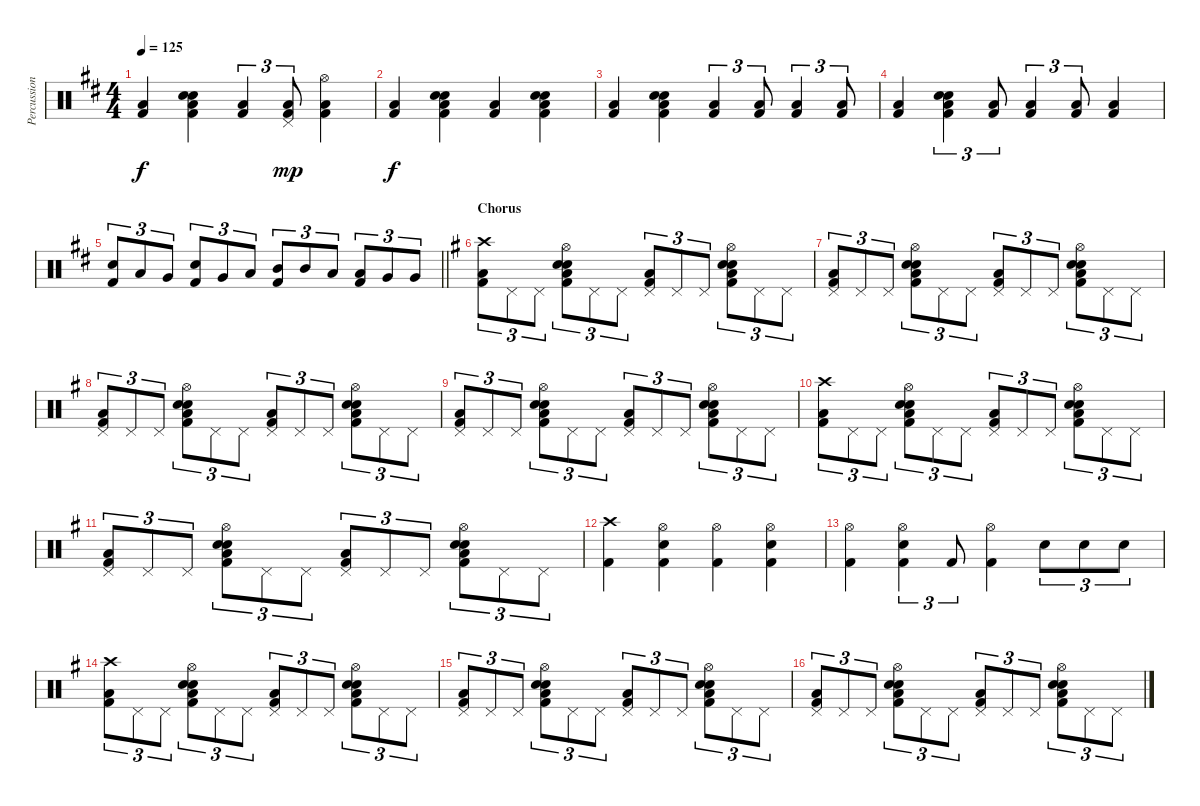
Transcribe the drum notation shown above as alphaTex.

\track ("Percussion" "Percussion") {instrument percussion}
\staff {score}
\articulation defaults
\ts (4 4)
\tempo 125
\clef neutral
\ks bminor
("Low Floor Tom (hit)" "Kick (hit) 2").4{dy f} ("Electric Snare (hit)" "Hand Clap (hit)" "Low Floor Tom (hit)" "Kick (hit) 2").4 ("Low Floor Tom (hit)" "Kick (hit) 2").4{tu (3 2)} ("Pedal Hi-Hat (hit)" "Low Floor Tom (hit)" "Kick (hit) 2").8{tu (3 2) dy mp} ("Hi-Hat (open)" "Low Floor Tom (hit)" "Kick (hit) 2").4 |
("Low Floor Tom (hit)" "Kick (hit) 2").4{dy f} ("Electric Snare (hit)" "Hand Clap (hit)" "Low Floor Tom (hit)" "Kick (hit) 2").4 ("Low Floor Tom (hit)" "Kick (hit) 2").4 ("Electric Snare (hit)" "Hand Clap (hit)" "Low Floor Tom (hit)" "Kick (hit) 2").4 |
("Low Floor Tom (hit)" "Kick (hit) 2").4 ("Electric Snare (hit)" "Hand Clap (hit)" "Low Floor Tom (hit)" "Kick (hit) 2").4 ("Low Floor Tom (hit)" "Kick (hit) 2").4{tu (3 2)} ("Low Floor Tom (hit)" "Kick (hit) 2").8{tu (3 2)} ("Low Floor Tom (hit)" "Kick (hit) 2").4{tu (3 2)} ("Low Floor Tom (hit)" "Kick (hit) 2").8{tu (3 2)} |
("Low Floor Tom (hit)" "Kick (hit) 2").4 ("Electric Snare (hit)" "Hand Clap (hit)" "Low Floor Tom (hit)" "Kick (hit) 2").4{tu (3 2)} ("Low Floor Tom (hit)" "Kick (hit) 2").8{tu (3 2)} ("Low Floor Tom (hit)" "Kick (hit) 2").4{tu (3 2)} ("Low Floor Tom (hit)" "Kick (hit) 2").8{tu (3 2)} ("Low Floor Tom (hit)" "Kick (hit) 2").4 |
\barLineRight lightlight
("Electric Snare (hit)" "Kick (hit) 2").8{tu (3 2)} "Low Tom (hit)".8{tu (3 2)} "Very Low Tom (hit)".8{tu (3 2)} ("Electric Snare (hit)" "Kick (hit) 2").8{tu (3 2)} "Very Low Tom (hit)".8{tu (3 2)} "Low Floor Tom (hit)".8{tu (3 2)} ("Mid Tom (hit)" "Kick (hit) 2").8{tu (3 2)} "Mid Tom (hit)".8{tu (3 2)} "Low Tom (hit)".8{tu (3 2)} ("Low Tom (hit)" "Kick (hit) 2").8{tu (3 2)} "Very Low Tom (hit)".8{tu (3 2)} "Very Low Tom (hit)".8{tu (3 2)} |
\section ("" "Chorus")
\ks eminor
("Crash high (hit)" "Low Floor Tom (hit)" "Kick (hit) 2").8{tu (3 2)} "Pedal Hi-Hat (hit)".8{tu (3 2)} "Pedal Hi-Hat (hit)".8{tu (3 2)} ("Hi-Hat (open)" "Electric Snare (hit)" "Hand Clap (hit)" "Low Floor Tom (hit)" "Kick (hit) 2").8{tu (3 2)} "Pedal Hi-Hat (hit)".8{tu (3 2)} "Pedal Hi-Hat (hit)".8{tu (3 2)} ("Pedal Hi-Hat (hit)" "Low Floor Tom (hit)" "Kick (hit) 2").8{tu (3 2)} "Pedal Hi-Hat (hit)".8{tu (3 2)} "Pedal Hi-Hat (hit)".8{tu (3 2)} ("Hi-Hat (open)" "Electric Snare (hit)" "Hand Clap (hit)" "Low Floor Tom (hit)" "Kick (hit) 2").8{tu (3 2)} "Pedal Hi-Hat (hit)".8{tu (3 2)} "Pedal Hi-Hat (hit)".8{tu (3 2)} |
("Pedal Hi-Hat (hit)" "Low Floor Tom (hit)" "Kick (hit) 2").8{tu (3 2)} "Pedal Hi-Hat (hit)".8{tu (3 2)} "Pedal Hi-Hat (hit)".8{tu (3 2)} ("Hi-Hat (open)" "Electric Snare (hit)" "Hand Clap (hit)" "Low Floor Tom (hit)" "Kick (hit) 2").8{tu (3 2)} "Pedal Hi-Hat (hit)".8{tu (3 2)} "Pedal Hi-Hat (hit)".8{tu (3 2)} ("Pedal Hi-Hat (hit)" "Low Floor Tom (hit)" "Kick (hit) 2").8{tu (3 2)} "Pedal Hi-Hat (hit)".8{tu (3 2)} "Pedal Hi-Hat (hit)".8{tu (3 2)} ("Hi-Hat (open)" "Electric Snare (hit)" "Hand Clap (hit)" "Low Floor Tom (hit)" "Kick (hit) 2").8{tu (3 2)} "Pedal Hi-Hat (hit)".8{tu (3 2)} "Pedal Hi-Hat (hit)".8{tu (3 2)} |
("Pedal Hi-Hat (hit)" "Low Floor Tom (hit)" "Kick (hit) 2").8{tu (3 2)} "Pedal Hi-Hat (hit)".8{tu (3 2)} "Pedal Hi-Hat (hit)".8{tu (3 2)} ("Hi-Hat (open)" "Electric Snare (hit)" "Hand Clap (hit)" "Low Floor Tom (hit)" "Kick (hit) 2").8{tu (3 2)} "Pedal Hi-Hat (hit)".8{tu (3 2)} "Pedal Hi-Hat (hit)".8{tu (3 2)} ("Pedal Hi-Hat (hit)" "Low Floor Tom (hit)" "Kick (hit) 2").8{tu (3 2)} "Pedal Hi-Hat (hit)".8{tu (3 2)} "Pedal Hi-Hat (hit)".8{tu (3 2)} ("Hi-Hat (open)" "Electric Snare (hit)" "Hand Clap (hit)" "Low Floor Tom (hit)" "Kick (hit) 2").8{tu (3 2)} "Pedal Hi-Hat (hit)".8{tu (3 2)} "Pedal Hi-Hat (hit)".8{tu (3 2)} |
("Pedal Hi-Hat (hit)" "Low Floor Tom (hit)" "Kick (hit) 2").8{tu (3 2)} "Pedal Hi-Hat (hit)".8{tu (3 2)} "Pedal Hi-Hat (hit)".8{tu (3 2)} ("Hi-Hat (open)" "Electric Snare (hit)" "Hand Clap (hit)" "Low Floor Tom (hit)" "Kick (hit) 2").8{tu (3 2)} "Pedal Hi-Hat (hit)".8{tu (3 2)} "Pedal Hi-Hat (hit)".8{tu (3 2)} ("Pedal Hi-Hat (hit)" "Low Floor Tom (hit)" "Kick (hit) 2").8{tu (3 2)} "Pedal Hi-Hat (hit)".8{tu (3 2)} "Pedal Hi-Hat (hit)".8{tu (3 2)} ("Hi-Hat (open)" "Electric Snare (hit)" "Hand Clap (hit)" "Low Floor Tom (hit)" "Kick (hit) 2").8{tu (3 2)} "Pedal Hi-Hat (hit)".8{tu (3 2)} "Pedal Hi-Hat (hit)".8{tu (3 2)} |
("Crash high (hit)" "Low Floor Tom (hit)" "Kick (hit) 2").8{tu (3 2)} "Pedal Hi-Hat (hit)".8{tu (3 2)} "Pedal Hi-Hat (hit)".8{tu (3 2)} ("Hi-Hat (open)" "Electric Snare (hit)" "Hand Clap (hit)" "Low Floor Tom (hit)" "Kick (hit) 2").8{tu (3 2)} "Pedal Hi-Hat (hit)".8{tu (3 2)} "Pedal Hi-Hat (hit)".8{tu (3 2)} ("Pedal Hi-Hat (hit)" "Low Floor Tom (hit)" "Kick (hit) 2").8{tu (3 2)} "Pedal Hi-Hat (hit)".8{tu (3 2)} "Pedal Hi-Hat (hit)".8{tu (3 2)} ("Hi-Hat (open)" "Electric Snare (hit)" "Hand Clap (hit)" "Low Floor Tom (hit)" "Kick (hit) 2").8{tu (3 2)} "Pedal Hi-Hat (hit)".8{tu (3 2)} "Pedal Hi-Hat (hit)".8{tu (3 2)} |
("Pedal Hi-Hat (hit)" "Low Floor Tom (hit)" "Kick (hit) 2").8{tu (3 2)} "Pedal Hi-Hat (hit)".8{tu (3 2)} "Pedal Hi-Hat (hit)".8{tu (3 2)} ("Hi-Hat (open)" "Electric Snare (hit)" "Hand Clap (hit)" "Low Floor Tom (hit)" "Kick (hit) 2").8{tu (3 2)} "Pedal Hi-Hat (hit)".8{tu (3 2)} "Pedal Hi-Hat (hit)".8{tu (3 2)} ("Pedal Hi-Hat (hit)" "Low Floor Tom (hit)" "Kick (hit) 2").8{tu (3 2)} "Pedal Hi-Hat (hit)".8{tu (3 2)} "Pedal Hi-Hat (hit)".8{tu (3 2)} ("Hi-Hat (open)" "Electric Snare (hit)" "Hand Clap (hit)" "Low Floor Tom (hit)" "Kick (hit) 2").8{tu (3 2)} "Pedal Hi-Hat (hit)".8{tu (3 2)} "Pedal Hi-Hat (hit)".8{tu (3 2)} |
("Crash high (hit)" "Kick (hit) 2").4 ("Hi-Hat (open)" "Electric Snare (hit)" "Kick (hit) 2").4 ("Hi-Hat (open)" "Kick (hit) 2").4 ("Hi-Hat (open)" "Electric Snare (hit)" "Kick (hit) 2").4 |
("Hi-Hat (open)" "Kick (hit) 2").4 ("Hi-Hat (open)" "Electric Snare (hit)" "Kick (hit) 2").4{tu (3 2)} "Kick (hit) 2".8{tu (3 2)} ("Hi-Hat (open)" "Kick (hit) 2").4 "Electric Snare (hit)".8{tu (3 2)} "Electric Snare (hit)".8{tu (3 2)} "Electric Snare (hit)".8{tu (3 2)} |
("Crash high (hit)" "Low Floor Tom (hit)" "Kick (hit) 2").8{tu (3 2)} "Pedal Hi-Hat (hit)".8{tu (3 2)} "Pedal Hi-Hat (hit)".8{tu (3 2)} ("Hi-Hat (open)" "Electric Snare (hit)" "Hand Clap (hit)" "Low Floor Tom (hit)" "Kick (hit) 2").8{tu (3 2)} "Pedal Hi-Hat (hit)".8{tu (3 2)} "Pedal Hi-Hat (hit)".8{tu (3 2)} ("Pedal Hi-Hat (hit)" "Low Floor Tom (hit)" "Kick (hit) 2").8{tu (3 2)} "Pedal Hi-Hat (hit)".8{tu (3 2)} "Pedal Hi-Hat (hit)".8{tu (3 2)} ("Hi-Hat (open)" "Electric Snare (hit)" "Hand Clap (hit)" "Low Floor Tom (hit)" "Kick (hit) 2").8{tu (3 2)} "Pedal Hi-Hat (hit)".8{tu (3 2)} "Pedal Hi-Hat (hit)".8{tu (3 2)} |
("Pedal Hi-Hat (hit)" "Low Floor Tom (hit)" "Kick (hit) 2").8{tu (3 2)} "Pedal Hi-Hat (hit)".8{tu (3 2)} "Pedal Hi-Hat (hit)".8{tu (3 2)} ("Hi-Hat (open)" "Electric Snare (hit)" "Hand Clap (hit)" "Low Floor Tom (hit)" "Kick (hit) 2").8{tu (3 2)} "Pedal Hi-Hat (hit)".8{tu (3 2)} "Pedal Hi-Hat (hit)".8{tu (3 2)} ("Pedal Hi-Hat (hit)" "Low Floor Tom (hit)" "Kick (hit) 2").8{tu (3 2)} "Pedal Hi-Hat (hit)".8{tu (3 2)} "Pedal Hi-Hat (hit)".8{tu (3 2)} ("Hi-Hat (open)" "Electric Snare (hit)" "Hand Clap (hit)" "Low Floor Tom (hit)" "Kick (hit) 2").8{tu (3 2)} "Pedal Hi-Hat (hit)".8{tu (3 2)} "Pedal Hi-Hat (hit)".8{tu (3 2)} |
("Pedal Hi-Hat (hit)" "Low Floor Tom (hit)" "Kick (hit) 2").8{tu (3 2)} "Pedal Hi-Hat (hit)".8{tu (3 2)} "Pedal Hi-Hat (hit)".8{tu (3 2)} ("Hi-Hat (open)" "Electric Snare (hit)" "Hand Clap (hit)" "Low Floor Tom (hit)" "Kick (hit) 2").8{tu (3 2)} "Pedal Hi-Hat (hit)".8{tu (3 2)} "Pedal Hi-Hat (hit)".8{tu (3 2)} ("Pedal Hi-Hat (hit)" "Low Floor Tom (hit)" "Kick (hit) 2").8{tu (3 2)} "Pedal Hi-Hat (hit)".8{tu (3 2)} "Pedal Hi-Hat (hit)".8{tu (3 2)} ("Hi-Hat (open)" "Electric Snare (hit)" "Hand Clap (hit)" "Low Floor Tom (hit)" "Kick (hit) 2").8{tu (3 2)} "Pedal Hi-Hat (hit)".8{tu (3 2)} "Pedal Hi-Hat (hit)".8{tu (3 2)}
